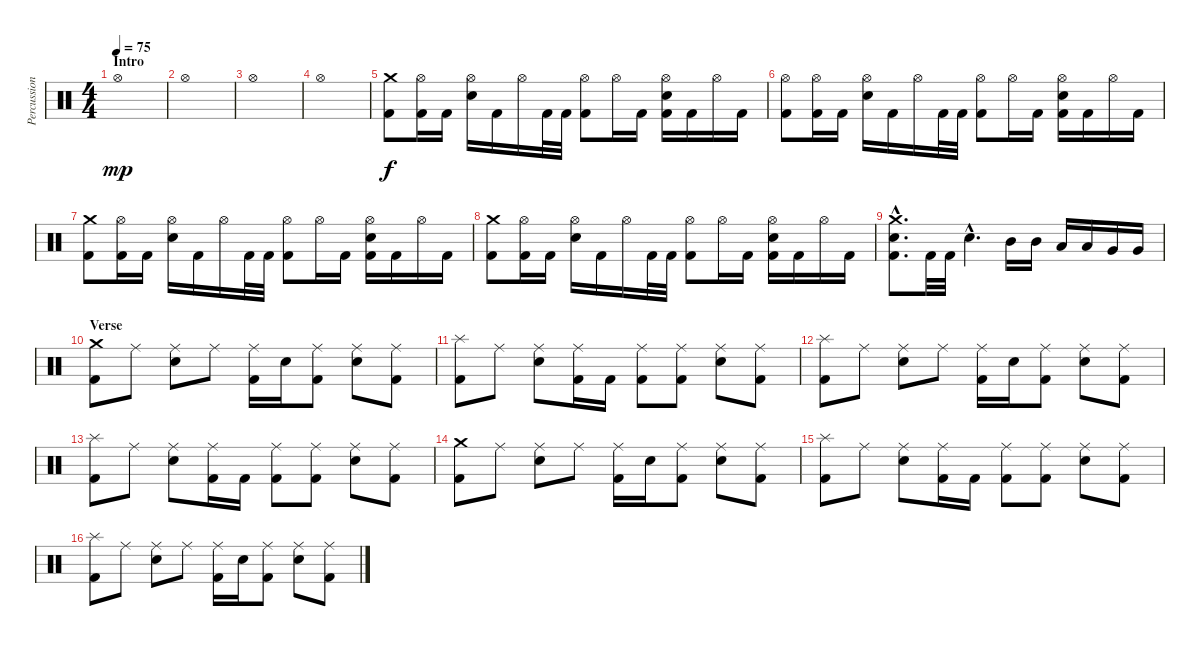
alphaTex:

\track ("Percussion" "Percussion") {instrument percussion}
\staff {score}
\articulation defaults
\ts (4 4)
\section ("" "Intro")
\tempo 75
\clef neutral
\ks c "Hi-Hat (open)".1{dy mp}
|
"Hi-Hat (open)".1 |
"Hi-Hat (open)".1 |
"Hi-Hat (open)".1 |
("Crash medium (hit)" "Kick (hit) 2").8{dy f} ("Hi-Hat (open)" "Kick (hit) 2").16 "Kick (hit) 2".16 ("Hi-Hat (open)" "Electric Snare (hit)").16 "Kick (hit) 2".16 "Hi-Hat (open)".16 "Kick (hit) 2".32 "Kick (hit) 2".32 ("Hi-Hat (open)" "Kick (hit) 2").8 "Hi-Hat (open)".16 "Kick (hit) 2".16 ("Hi-Hat (open)" "Electric Snare (hit)" "Kick (hit) 2").16 "Kick (hit) 2".16 "Hi-Hat (open)".16 "Kick (hit) 2".16 |
("Hi-Hat (open)" "Kick (hit) 2").8 ("Hi-Hat (open)" "Kick (hit) 2").16 "Kick (hit) 2".16 ("Hi-Hat (open)" "Electric Snare (hit)").16 "Kick (hit) 2".16 "Hi-Hat (open)".16 "Kick (hit) 2".32 "Kick (hit) 2".32 ("Hi-Hat (open)" "Kick (hit) 2").8 "Hi-Hat (open)".16 "Kick (hit) 2".16 ("Hi-Hat (open)" "Electric Snare (hit)" "Kick (hit) 2").16 "Kick (hit) 2".16 "Hi-Hat (open)".16 "Kick (hit) 2".16 |
("Crash medium (hit)" "Kick (hit) 2").8 ("Hi-Hat (open)" "Kick (hit) 2").16 "Kick (hit) 2".16 ("Hi-Hat (open)" "Electric Snare (hit)").16 "Kick (hit) 2".16 "Hi-Hat (open)".16 "Kick (hit) 2".32 "Kick (hit) 2".32 ("Hi-Hat (open)" "Kick (hit) 2").8 "Hi-Hat (open)".16 "Kick (hit) 2".16 ("Hi-Hat (open)" "Electric Snare (hit)" "Kick (hit) 2").16 "Kick (hit) 2".16 "Hi-Hat (open)".16 "Kick (hit) 2".16 |
("Crash medium (hit)" "Kick (hit) 2").8 ("Hi-Hat (open)" "Kick (hit) 2").16 "Kick (hit) 2".16 ("Hi-Hat (open)" "Electric Snare (hit)").16 "Kick (hit) 2".16 "Hi-Hat (open)".16 "Kick (hit) 2".32 "Kick (hit) 2".32 ("Hi-Hat (open)" "Kick (hit) 2").8 "Hi-Hat (open)".16 "Kick (hit) 2".16 ("Hi-Hat (open)" "Electric Snare (hit)" "Kick (hit) 2").16 "Kick (hit) 2".16 "Hi-Hat (open)".16 "Kick (hit) 2".16 |
("Crash medium (hit)"{hac} "Electric Snare (hit)"{hac} "Kick (hit) 2"{hac}).8{d} "Kick (hit) 2".32 "Kick (hit) 2".32 "Electric Snare (hit)"{hac}.4{d} "Mid Tom (hit)".16 "Mid Tom (hit)".16 "Low Tom (hit)".16 "Low Tom (hit)".16 "Very Low Tom (hit)".16 "Very Low Tom (hit)".16 |
\section ("" "Verse")
("Crash medium (hit)" "Kick (hit) 2").8 "Ride (middle)".8 ("Ride (middle)" "Electric Snare (hit)").8 "Ride (middle)".8 ("Ride (middle)" "Kick (hit) 2").16 "Electric Snare (hit)".16 ("Ride (middle)" "Kick (hit) 2").8 ("Ride (middle)" "Electric Snare (hit)").8 ("Ride (middle)" "Kick (hit) 2").8 |
("Splash (hit)" "Kick (hit) 2").8 "Ride (middle)".8 ("Ride (middle)" "Electric Snare (hit)").8 ("Ride (middle)" "Kick (hit) 2").16 "Kick (hit) 2".16 ("Ride (middle)" "Kick (hit) 2").8 ("Ride (middle)" "Kick (hit) 2").8 ("Ride (middle)" "Electric Snare (hit)").8 ("Ride (middle)" "Kick (hit) 2").8 |
("Splash (hit)" "Kick (hit) 2").8 "Ride (middle)".8 ("Ride (middle)" "Electric Snare (hit)").8 "Ride (middle)".8 ("Ride (middle)" "Kick (hit) 2").16 "Electric Snare (hit)".16 ("Ride (middle)" "Kick (hit) 2").8 ("Ride (middle)" "Electric Snare (hit)").8 ("Ride (middle)" "Kick (hit) 2").8 |
("Splash (hit)" "Kick (hit) 2").8 "Ride (middle)".8 ("Ride (middle)" "Electric Snare (hit)").8 ("Ride (middle)" "Kick (hit) 2").16 "Kick (hit) 2".16 ("Ride (middle)" "Kick (hit) 2").8 ("Ride (middle)" "Kick (hit) 2").8 ("Ride (middle)" "Electric Snare (hit)").8 ("Ride (middle)" "Kick (hit) 2").8 |
("Crash medium (hit)" "Kick (hit) 2").8 "Ride (middle)".8 ("Ride (middle)" "Electric Snare (hit)").8 "Ride (middle)".8 ("Ride (middle)" "Kick (hit) 2").16 "Electric Snare (hit)".16 ("Ride (middle)" "Kick (hit) 2").8 ("Ride (middle)" "Electric Snare (hit)").8 ("Ride (middle)" "Kick (hit) 2").8 |
("Splash (hit)" "Kick (hit) 2").8 "Ride (middle)".8 ("Ride (middle)" "Electric Snare (hit)").8 ("Ride (middle)" "Kick (hit) 2").16 "Kick (hit) 2".16 ("Ride (middle)" "Kick (hit) 2").8 ("Ride (middle)" "Kick (hit) 2").8 ("Ride (middle)" "Electric Snare (hit)").8 ("Ride (middle)" "Kick (hit) 2").8 |
("Splash (hit)" "Kick (hit) 2").8 "Ride (middle)".8 ("Ride (middle)" "Electric Snare (hit)").8 "Ride (middle)".8 ("Ride (middle)" "Kick (hit) 2").16 "Electric Snare (hit)".16 ("Ride (middle)" "Kick (hit) 2").8 ("Ride (middle)" "Electric Snare (hit)").8 ("Ride (middle)" "Kick (hit) 2").8
